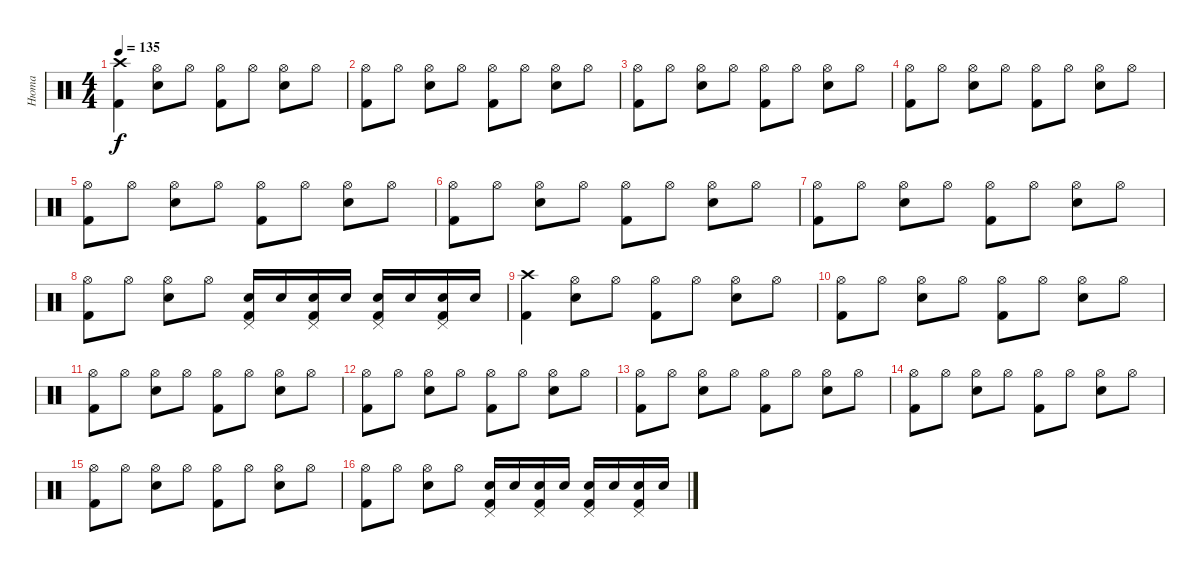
\track ("Нюта" "Нюта") {instrument percussion}
\staff {score}
\articulation defaults
\ts (4 4)
\tempo 135
\clef neutral
\ks c
("Crash high (hit)" "Kick (hit) 2").4{dy f} ("Hi-Hat (open)" "Electric Snare (hit)").8 "Hi-Hat (open)".8 ("Hi-Hat (open)" "Kick (hit) 2").8 "Hi-Hat (open)".8 ("Hi-Hat (open)" "Electric Snare (hit)").8 "Hi-Hat (open)".8 |
("Hi-Hat (open)" "Kick (hit) 2").8 "Hi-Hat (open)".8 ("Hi-Hat (open)" "Electric Snare (hit)").8 "Hi-Hat (open)".8 ("Hi-Hat (open)" "Kick (hit) 2").8 "Hi-Hat (open)".8 ("Hi-Hat (open)" "Electric Snare (hit)").8 "Hi-Hat (open)".8 |
("Hi-Hat (open)" "Kick (hit) 2").8 "Hi-Hat (open)".8 ("Hi-Hat (open)" "Electric Snare (hit)").8 "Hi-Hat (open)".8 ("Hi-Hat (open)" "Kick (hit) 2").8 "Hi-Hat (open)".8 ("Hi-Hat (open)" "Electric Snare (hit)").8 "Hi-Hat (open)".8 |
("Hi-Hat (open)" "Kick (hit) 2").8 "Hi-Hat (open)".8 ("Hi-Hat (open)" "Electric Snare (hit)").8 "Hi-Hat (open)".8 ("Hi-Hat (open)" "Kick (hit) 2").8 "Hi-Hat (open)".8 ("Hi-Hat (open)" "Electric Snare (hit)").8 "Hi-Hat (open)".8 |
("Hi-Hat (open)" "Kick (hit) 2").8 "Hi-Hat (open)".8 ("Hi-Hat (open)" "Electric Snare (hit)").8 "Hi-Hat (open)".8 ("Hi-Hat (open)" "Kick (hit) 2").8 "Hi-Hat (open)".8 ("Hi-Hat (open)" "Electric Snare (hit)").8 "Hi-Hat (open)".8 |
("Hi-Hat (open)" "Kick (hit) 2").8 "Hi-Hat (open)".8 ("Hi-Hat (open)" "Electric Snare (hit)").8 "Hi-Hat (open)".8 ("Hi-Hat (open)" "Kick (hit) 2").8 "Hi-Hat (open)".8 ("Hi-Hat (open)" "Electric Snare (hit)").8 "Hi-Hat (open)".8 |
("Hi-Hat (open)" "Kick (hit) 2").8 "Hi-Hat (open)".8 ("Hi-Hat (open)" "Electric Snare (hit)").8 "Hi-Hat (open)".8 ("Hi-Hat (open)" "Kick (hit) 2").8 "Hi-Hat (open)".8 ("Hi-Hat (open)" "Electric Snare (hit)").8 "Hi-Hat (open)".8 |
("Hi-Hat (open)" "Kick (hit) 2").8 "Hi-Hat (open)".8 ("Hi-Hat (open)" "Electric Snare (hit)").8 "Hi-Hat (open)".8 ("Electric Snare (hit)" "Kick (hit) 2" "Pedal Hi-Hat (hit)").16 "Electric Snare (hit)".16 ("Electric Snare (hit)" "Kick (hit) 2" "Pedal Hi-Hat (hit)").16 "Electric Snare (hit)".16 ("Electric Snare (hit)" "Kick (hit) 2" "Pedal Hi-Hat (hit)").16 "Electric Snare (hit)".16 ("Electric Snare (hit)" "Kick (hit) 2" "Pedal Hi-Hat (hit)").16 "Electric Snare (hit)".16 |
("Crash high (hit)" "Kick (hit) 2").4 ("Hi-Hat (open)" "Electric Snare (hit)").8 "Hi-Hat (open)".8 ("Hi-Hat (open)" "Kick (hit) 2").8 "Hi-Hat (open)".8 ("Hi-Hat (open)" "Electric Snare (hit)").8 "Hi-Hat (open)".8 |
("Hi-Hat (open)" "Kick (hit) 2").8 "Hi-Hat (open)".8 ("Hi-Hat (open)" "Electric Snare (hit)").8 "Hi-Hat (open)".8 ("Hi-Hat (open)" "Kick (hit) 2").8 "Hi-Hat (open)".8 ("Hi-Hat (open)" "Electric Snare (hit)").8 "Hi-Hat (open)".8 |
("Hi-Hat (open)" "Kick (hit) 2").8 "Hi-Hat (open)".8 ("Hi-Hat (open)" "Electric Snare (hit)").8 "Hi-Hat (open)".8 ("Hi-Hat (open)" "Kick (hit) 2").8 "Hi-Hat (open)".8 ("Hi-Hat (open)" "Electric Snare (hit)").8 "Hi-Hat (open)".8 |
("Hi-Hat (open)" "Kick (hit) 2").8 "Hi-Hat (open)".8 ("Hi-Hat (open)" "Electric Snare (hit)").8 "Hi-Hat (open)".8 ("Hi-Hat (open)" "Kick (hit) 2").8 "Hi-Hat (open)".8 ("Hi-Hat (open)" "Electric Snare (hit)").8 "Hi-Hat (open)".8 |
("Hi-Hat (open)" "Kick (hit) 2").8 "Hi-Hat (open)".8 ("Hi-Hat (open)" "Electric Snare (hit)").8 "Hi-Hat (open)".8 ("Hi-Hat (open)" "Kick (hit) 2").8 "Hi-Hat (open)".8 ("Hi-Hat (open)" "Electric Snare (hit)").8 "Hi-Hat (open)".8 |
("Hi-Hat (open)" "Kick (hit) 2").8 "Hi-Hat (open)".8 ("Hi-Hat (open)" "Electric Snare (hit)").8 "Hi-Hat (open)".8 ("Hi-Hat (open)" "Kick (hit) 2").8 "Hi-Hat (open)".8 ("Hi-Hat (open)" "Electric Snare (hit)").8 "Hi-Hat (open)".8 |
("Hi-Hat (open)" "Kick (hit) 2").8 "Hi-Hat (open)".8 ("Hi-Hat (open)" "Electric Snare (hit)").8 "Hi-Hat (open)".8 ("Hi-Hat (open)" "Kick (hit) 2").8 "Hi-Hat (open)".8 ("Hi-Hat (open)" "Electric Snare (hit)").8 "Hi-Hat (open)".8 |
("Hi-Hat (open)" "Kick (hit) 2").8 "Hi-Hat (open)".8 ("Hi-Hat (open)" "Electric Snare (hit)").8 "Hi-Hat (open)".8 ("Electric Snare (hit)" "Kick (hit) 2" "Pedal Hi-Hat (hit)").16 "Electric Snare (hit)".16 ("Electric Snare (hit)" "Kick (hit) 2" "Pedal Hi-Hat (hit)").16 "Electric Snare (hit)".16 ("Electric Snare (hit)" "Kick (hit) 2" "Pedal Hi-Hat (hit)").16 "Electric Snare (hit)".16 ("Electric Snare (hit)" "Kick (hit) 2" "Pedal Hi-Hat (hit)").16 "Electric Snare (hit)".16
